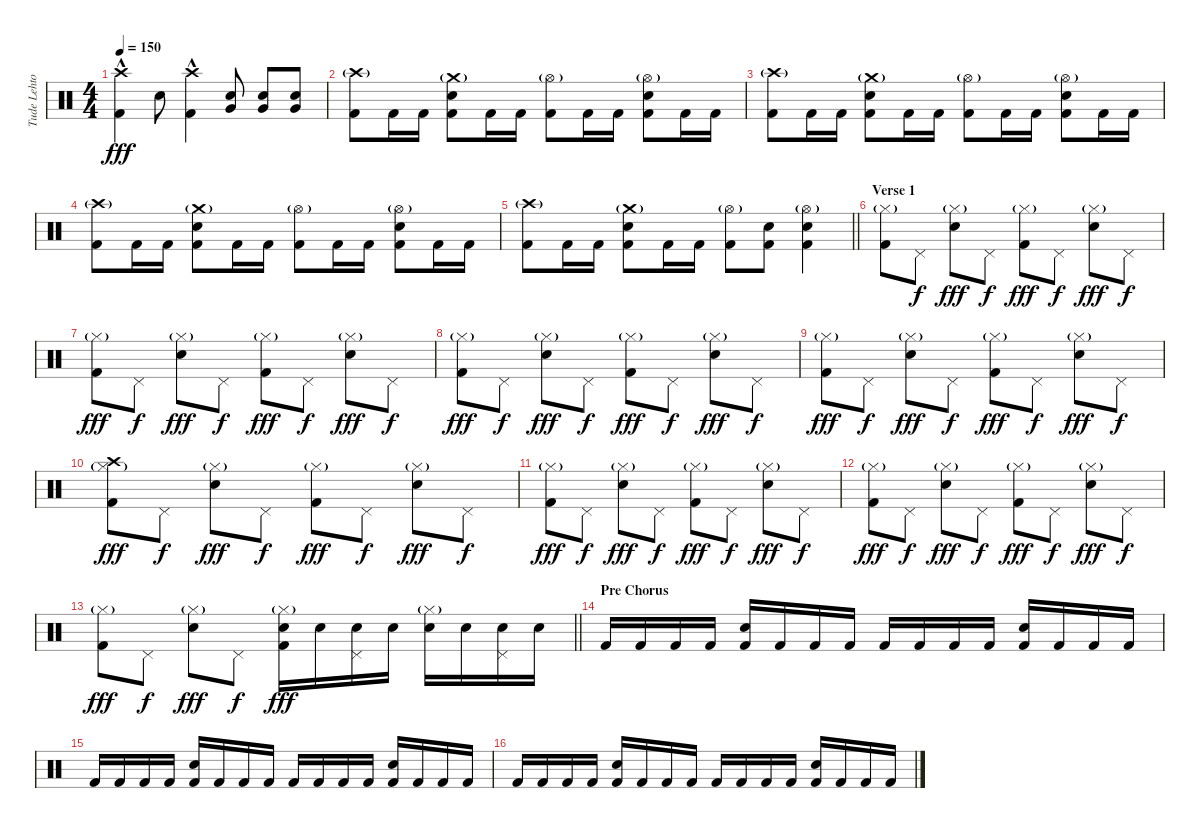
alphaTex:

\track ("Tude Lehtonen" "Tude Lehto") {instrument percussion}
\staff {score}
\articulation defaults
\ts (4 4)
\tempo 150
\clef neutral
\ks c
("Crash high (hit)"{hac} "Kick (hit) 2"{hac}).4{dy fff} "Electric Snare (hit)".8 ("Crash high (hit)"{hac} "Kick (hit) 2"{hac}).4 ("Electric Snare (hit)" "Very Low Tom (hit)").8 ("Electric Snare (hit)" "Very Low Tom (hit)").8 ("Electric Snare (hit)" "Very Low Tom (hit)").8 |
("Crash high (hit)"{g} "Kick (hit) 2").8 "Kick (hit) 2".16 "Kick (hit) 2".16 ("Crash medium (hit)"{g} "Electric Snare (hit)" "Kick (hit) 2").8 "Kick (hit) 2".16 "Kick (hit) 2".16 ("Hi-Hat (open)"{g} "Kick (hit) 2").8 "Kick (hit) 2".16 "Kick (hit) 2".16 ("Hi-Hat (open)"{g} "Electric Snare (hit)" "Kick (hit) 2").8 "Kick (hit) 2".16 "Kick (hit) 2".16 |
("Crash high (hit)"{g} "Kick (hit) 2").8 "Kick (hit) 2".16 "Kick (hit) 2".16 ("Crash medium (hit)"{g} "Electric Snare (hit)" "Kick (hit) 2").8 "Kick (hit) 2".16 "Kick (hit) 2".16 ("Hi-Hat (open)"{g} "Kick (hit) 2").8 "Kick (hit) 2".16 "Kick (hit) 2".16 ("Hi-Hat (open)"{g} "Electric Snare (hit)" "Kick (hit) 2").8 "Kick (hit) 2".16 "Kick (hit) 2".16 |
("Crash high (hit)"{g} "Kick (hit) 2").8 "Kick (hit) 2".16 "Kick (hit) 2".16 ("Crash medium (hit)"{g} "Electric Snare (hit)" "Kick (hit) 2").8 "Kick (hit) 2".16 "Kick (hit) 2".16 ("Hi-Hat (open)"{g} "Kick (hit) 2").8 "Kick (hit) 2".16 "Kick (hit) 2".16 ("Hi-Hat (open)"{g} "Electric Snare (hit)" "Kick (hit) 2").8 "Kick (hit) 2".16 "Kick (hit) 2".16 |
\barLineRight lightlight
("Crash high (hit)"{g} "Kick (hit) 2").8 "Kick (hit) 2".16 "Kick (hit) 2".16 ("Crash medium (hit)"{g} "Electric Snare (hit)" "Kick (hit) 2").8 "Kick (hit) 2".16 "Kick (hit) 2".16 ("Hi-Hat (open)"{g} "Kick (hit) 2").8 ("Electric Snare (hit)" "Kick (hit) 2").8 ("Hi-Hat (open)"{g} "Electric Snare (hit)" "Kick (hit) 2").4 |
\section ("" "Verse 1")
("Hi-Hat (closed)"{g} "Kick (hit) 2").8 "Pedal Hi-Hat (hit)".8{dy f} ("Hi-Hat (closed)"{g} "Electric Snare (hit)").8{dy fff} "Pedal Hi-Hat (hit)".8{dy f} ("Hi-Hat (closed)"{g} "Kick (hit) 2").8{dy fff} "Pedal Hi-Hat (hit)".8{dy f} ("Hi-Hat (closed)"{g} "Electric Snare (hit)").8{dy fff} "Pedal Hi-Hat (hit)".8{dy f} |
("Hi-Hat (closed)"{g} "Kick (hit) 2").8{dy fff} "Pedal Hi-Hat (hit)".8{dy f} ("Hi-Hat (closed)"{g} "Electric Snare (hit)").8{dy fff} "Pedal Hi-Hat (hit)".8{dy f} ("Hi-Hat (closed)"{g} "Kick (hit) 2").8{dy fff} "Pedal Hi-Hat (hit)".8{dy f} ("Hi-Hat (closed)"{g} "Electric Snare (hit)").8{dy fff} "Pedal Hi-Hat (hit)".8{dy f} |
("Hi-Hat (closed)"{g} "Kick (hit) 2").8{dy fff} "Pedal Hi-Hat (hit)".8{dy f} ("Hi-Hat (closed)"{g} "Electric Snare (hit)").8{dy fff} "Pedal Hi-Hat (hit)".8{dy f} ("Hi-Hat (closed)"{g} "Kick (hit) 2").8{dy fff} "Pedal Hi-Hat (hit)".8{dy f} ("Hi-Hat (closed)"{g} "Electric Snare (hit)").8{dy fff} "Pedal Hi-Hat (hit)".8{dy f} |
("Hi-Hat (closed)"{g} "Kick (hit) 2").8{dy fff} "Pedal Hi-Hat (hit)".8{dy f} ("Hi-Hat (closed)"{g} "Electric Snare (hit)").8{dy fff} "Pedal Hi-Hat (hit)".8{dy f} ("Hi-Hat (closed)"{g} "Kick (hit) 2").8{dy fff} "Pedal Hi-Hat (hit)".8{dy f} ("Hi-Hat (closed)"{g} "Electric Snare (hit)").8{dy fff} "Pedal Hi-Hat (hit)".8{dy f} |
("Crash high (hit)" "Hi-Hat (closed)"{g} "Kick (hit) 2").8{dy fff} "Pedal Hi-Hat (hit)".8{dy f} ("Hi-Hat (closed)"{g} "Electric Snare (hit)").8{dy fff} "Pedal Hi-Hat (hit)".8{dy f} ("Hi-Hat (closed)"{g} "Kick (hit) 2").8{dy fff} "Pedal Hi-Hat (hit)".8{dy f} ("Hi-Hat (closed)"{g} "Electric Snare (hit)").8{dy fff} "Pedal Hi-Hat (hit)".8{dy f} |
("Hi-Hat (closed)"{g} "Kick (hit) 2").8{dy fff} "Pedal Hi-Hat (hit)".8{dy f} ("Hi-Hat (closed)"{g} "Electric Snare (hit)").8{dy fff} "Pedal Hi-Hat (hit)".8{dy f} ("Hi-Hat (closed)"{g} "Kick (hit) 2").8{dy fff} "Pedal Hi-Hat (hit)".8{dy f} ("Hi-Hat (closed)"{g} "Electric Snare (hit)").8{dy fff} "Pedal Hi-Hat (hit)".8{dy f} |
("Hi-Hat (closed)"{g} "Kick (hit) 2").8{dy fff} "Pedal Hi-Hat (hit)".8{dy f} ("Hi-Hat (closed)"{g} "Electric Snare (hit)").8{dy fff} "Pedal Hi-Hat (hit)".8{dy f} ("Hi-Hat (closed)"{g} "Kick (hit) 2").8{dy fff} "Pedal Hi-Hat (hit)".8{dy f} ("Hi-Hat (closed)"{g} "Electric Snare (hit)").8{dy fff} "Pedal Hi-Hat (hit)".8{dy f} |
\barLineRight lightlight
("Hi-Hat (closed)"{g} "Kick (hit) 2").8{dy fff} "Pedal Hi-Hat (hit)".8{dy f} ("Hi-Hat (closed)"{g} "Electric Snare (hit)").8{dy fff} "Pedal Hi-Hat (hit)".8{dy f} ("Hi-Hat (closed)"{g} "Electric Snare (hit)" "Kick (hit) 2").16{dy fff} "Electric Snare (hit)".16 ("Pedal Hi-Hat (hit)" "Electric Snare (hit)").16 "Electric Snare (hit)".16 ("Hi-Hat (closed)"{g} "Electric Snare (hit)").16 "Electric Snare (hit)".16 ("Pedal Hi-Hat (hit)" "Electric Snare (hit)").16 "Electric Snare (hit)".16 |
\section ("" "Pre Chorus")
"Kick (hit) 2".16 "Kick (hit) 2".16 "Kick (hit) 2".16 "Kick (hit) 2".16 ("Snare (hit) 2" "Kick (hit) 2").16 "Kick (hit) 2".16 "Kick (hit) 2".16 "Kick (hit) 2".16 "Kick (hit) 2".16 "Kick (hit) 2".16 "Kick (hit) 2".16 "Kick (hit) 2".16 ("Snare (hit) 2" "Kick (hit) 2").16 "Kick (hit) 2".16 "Kick (hit) 2".16 "Kick (hit) 2".16 |
"Kick (hit) 2".16 "Kick (hit) 2".16 "Kick (hit) 2".16 "Kick (hit) 2".16 ("Snare (hit) 2" "Kick (hit) 2").16 "Kick (hit) 2".16 "Kick (hit) 2".16 "Kick (hit) 2".16 "Kick (hit) 2".16 "Kick (hit) 2".16 "Kick (hit) 2".16 "Kick (hit) 2".16 ("Snare (hit) 2" "Kick (hit) 2").16 "Kick (hit) 2".16 "Kick (hit) 2".16 "Kick (hit) 2".16 |
"Kick (hit) 2".16 "Kick (hit) 2".16 "Kick (hit) 2".16 "Kick (hit) 2".16 ("Snare (hit) 2" "Kick (hit) 2").16 "Kick (hit) 2".16 "Kick (hit) 2".16 "Kick (hit) 2".16 "Kick (hit) 2".16 "Kick (hit) 2".16 "Kick (hit) 2".16 "Kick (hit) 2".16 ("Snare (hit) 2" "Kick (hit) 2").16 "Kick (hit) 2".16 "Kick (hit) 2".16 "Kick (hit) 2".16
